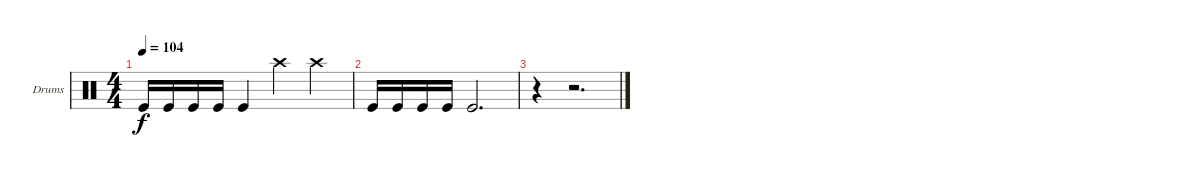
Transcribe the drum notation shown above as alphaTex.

\bracketExtendMode groupsimilarinstruments
\firstSystemTrackNameOrientation horizontal
\otherSystemsTrackNameOrientation horizontal
\track ("Drumkit" "Drums") {instrument percussion}
\staff {score}
\articulation defaults
\ts (4 4)
\tempo 104
\clef neutral
\ks c "Kick (hit)".16{dy f} "Kick (hit)".16 "Kick (hit)".16 "Kick (hit)".16 "Kick (hit)".4 "Crash high (hit)".4 "Crash high (hit)".4
|
"Kick (hit)".16 "Kick (hit)".16 "Kick (hit)".16 "Kick (hit)".16 "Kick (hit)".2{d} |
r.4 r.2{d}
